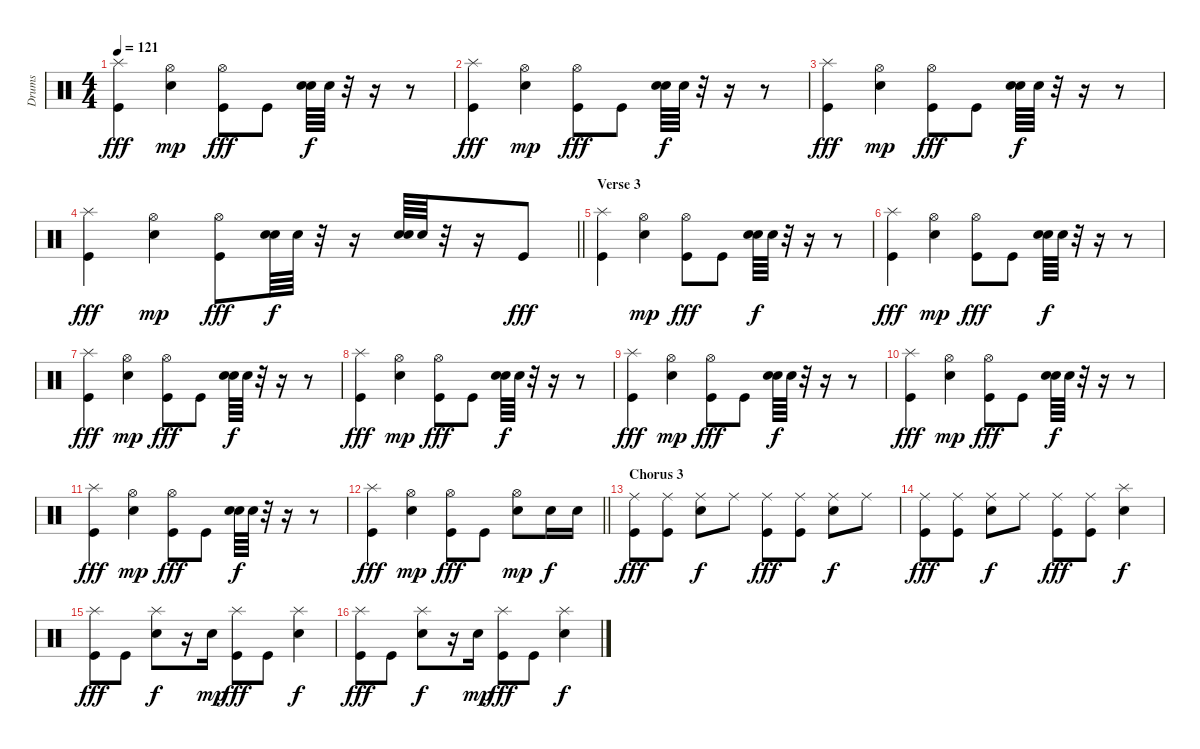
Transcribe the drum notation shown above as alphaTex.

\track ("Drums" "Drums") {instrument percussion}
\staff {score}
\articulation defaults
\ts (4 4)
\tempo 121
\clef neutral
\ks c
("Splash (hit)" "Kick (hit)").4{dy fff} ("Hi-Hat (open)" "Snare (hit) 2").4{dy mp} ("Hi-Hat (open)" "Kick (hit)").8{dy fff} "Kick (hit)".8 ("Snare (hit)"{x} "Snare (hit) 2").64{dy f} "Snare (hit) 2".64 r.32 r.16 r.8 |
("Splash (hit)" "Kick (hit)").4{dy fff} ("Hi-Hat (open)" "Snare (hit) 2").4{dy mp} ("Hi-Hat (open)" "Kick (hit)").8{dy fff} "Kick (hit)".8 ("Snare (hit)"{x} "Snare (hit) 2").64{dy f} "Snare (hit) 2".64 r.32 r.16 r.8 |
("Splash (hit)" "Kick (hit)").4{dy fff} ("Hi-Hat (open)" "Snare (hit) 2").4{dy mp} ("Hi-Hat (open)" "Kick (hit)").8{dy fff} "Kick (hit)".8 ("Snare (hit)"{x} "Snare (hit) 2").64{dy f} "Snare (hit) 2".64 r.32 r.16 r.8 |
\barLineRight lightlight
("Splash (hit)" "Kick (hit)").4{dy fff} ("Hi-Hat (open)" "Snare (hit) 2").4{dy mp} ("Hi-Hat (open)" "Kick (hit)").8{dy fff} ("Snare (hit)"{x} "Snare (hit) 2").64{dy f} "Snare (hit) 2".64 r.32 r.16 ("Snare (hit)"{x} "Snare (hit) 2").64 "Snare (hit) 2".64 r.32 r.16 "Kick (hit)".8{dy fff} |
\section ("" "Verse 3")
("Splash (hit)" "Kick (hit)").4 ("Hi-Hat (open)" "Snare (hit) 2").4{dy mp} ("Hi-Hat (open)" "Kick (hit)").8{dy fff} "Kick (hit)".8 ("Snare (hit)"{x} "Snare (hit) 2").64{dy f} "Snare (hit) 2".64 r.32 r.16 r.8 |
("Splash (hit)" "Kick (hit)").4{dy fff} ("Hi-Hat (open)" "Snare (hit) 2").4{dy mp} ("Hi-Hat (open)" "Kick (hit)").8{dy fff} "Kick (hit)".8 ("Snare (hit)"{x} "Snare (hit) 2").64{dy f} "Snare (hit) 2".64 r.32 r.16 r.8 |
("Splash (hit)" "Kick (hit)").4{dy fff} ("Hi-Hat (open)" "Snare (hit) 2").4{dy mp} ("Hi-Hat (open)" "Kick (hit)").8{dy fff} "Kick (hit)".8 ("Snare (hit)"{x} "Snare (hit) 2").64{dy f} "Snare (hit) 2".64 r.32 r.16 r.8 |
("Splash (hit)" "Kick (hit)").4{dy fff} ("Hi-Hat (open)" "Snare (hit) 2").4{dy mp} ("Hi-Hat (open)" "Kick (hit)").8{dy fff} "Kick (hit)".8 ("Snare (hit)"{x} "Snare (hit) 2").64{dy f} "Snare (hit) 2".64 r.32 r.16 r.8 |
("Splash (hit)" "Kick (hit)").4{dy fff} ("Hi-Hat (open)" "Snare (hit) 2").4{dy mp} ("Hi-Hat (open)" "Kick (hit)").8{dy fff} "Kick (hit)".8 ("Snare (hit)"{x} "Snare (hit) 2").64{dy f} "Snare (hit) 2".64 r.32 r.16 r.8 |
("Splash (hit)" "Kick (hit)").4{dy fff} ("Hi-Hat (open)" "Snare (hit) 2").4{dy mp} ("Hi-Hat (open)" "Kick (hit)").8{dy fff} "Kick (hit)".8 ("Snare (hit)"{x} "Snare (hit) 2").64{dy f} "Snare (hit) 2".64 r.32 r.16 r.8 |
("Splash (hit)" "Kick (hit)").4{dy fff} ("Hi-Hat (open)" "Snare (hit) 2").4{dy mp} ("Hi-Hat (open)" "Kick (hit)").8{dy fff} "Kick (hit)".8 ("Snare (hit)"{x} "Snare (hit) 2").64{dy f} "Snare (hit) 2".64 r.32 r.16 r.8 |
\barLineRight lightlight
("Splash (hit)" "Kick (hit)").4{dy fff} ("Hi-Hat (open)" "Snare (hit) 2").4{dy mp} ("Hi-Hat (open)" "Kick (hit)").8{dy fff} "Kick (hit)".8 ("Hi-Hat (open)" "Snare (hit) 2").8{dy mp} "Snare (hit) 2".16{dy f} "Snare (hit) 2".16 |
\section ("" "Chorus 3")
("Ride (middle)" "Kick (hit)").8{dy fff} ("Ride (middle)" "Kick (hit)").8 ("Ride (middle)" "Snare (hit) 2").8{dy f} "Ride (middle)".8 ("Ride (middle)" "Kick (hit)").8{dy fff} ("Ride (middle)" "Kick (hit)").8 ("Ride (middle)" "Snare (hit) 2").8{dy f} "Ride (middle)".8 |
("Ride (middle)" "Kick (hit)").8{dy fff} ("Ride (middle)" "Kick (hit)").8 ("Ride (middle)" "Snare (hit) 2").8{dy f} "Ride (middle)".8 ("Ride (middle)" "Kick (hit)").8{dy fff} ("Ride (middle)" "Kick (hit)").8 ("Splash (hit)" "Snare (hit) 2").4{dy f} |
("Splash (hit)" "Kick (hit)").8{dy fff} "Kick (hit)".8 ("Splash (hit)" "Snare (hit) 2").8{dy f} r.16 "Snare (hit) 2".16{dy mp} ("Splash (hit)" "Kick (hit)").8{dy fff} "Kick (hit)".8 ("Splash (hit)" "Snare (hit) 2").4{dy f} |
("Splash (hit)" "Kick (hit)").8{dy fff} "Kick (hit)".8 ("Splash (hit)" "Snare (hit) 2").8{dy f} r.16 "Snare (hit) 2".16{dy mp} ("Splash (hit)" "Kick (hit)").8{dy fff} "Kick (hit)".8 ("Splash (hit)" "Snare (hit) 2").4{dy f}
